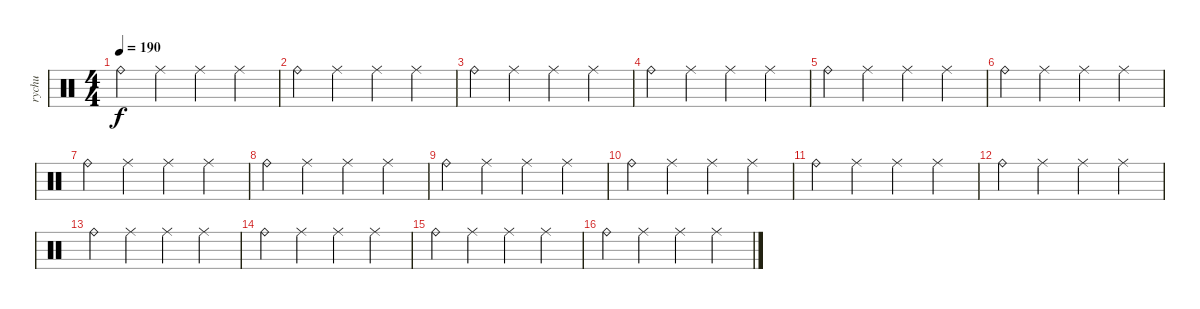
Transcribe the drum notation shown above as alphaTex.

\track ("rychu" "rychu") {instrument percussion}
\staff {score}
\articulation defaults
\ts (4 4)
\tempo 190
\clef neutral
\ks c "Ride (bell)".4{dy f} "Ride (middle)".4 "Ride (middle)".4 "Ride (middle)".4
|
"Ride (bell)".4 "Ride (middle)".4 "Ride (middle)".4 "Ride (middle)".4 |
"Ride (bell)".4 "Ride (middle)".4 "Ride (middle)".4 "Ride (middle)".4 |
"Ride (bell)".4 "Ride (middle)".4 "Ride (middle)".4 "Ride (middle)".4 |
"Ride (bell)".4 "Ride (middle)".4 "Ride (middle)".4 "Ride (middle)".4 |
"Ride (bell)".4 "Ride (middle)".4 "Ride (middle)".4 "Ride (middle)".4 |
"Ride (bell)".4 "Ride (middle)".4 "Ride (middle)".4 "Ride (middle)".4 |
"Ride (bell)".4 "Ride (middle)".4 "Ride (middle)".4 "Ride (middle)".4 |
"Ride (bell)".4 "Ride (middle)".4 "Ride (middle)".4 "Ride (middle)".4 |
"Ride (bell)".4 "Ride (middle)".4 "Ride (middle)".4 "Ride (middle)".4 |
"Ride (bell)".4 "Ride (middle)".4 "Ride (middle)".4 "Ride (middle)".4 |
"Ride (bell)".4 "Ride (middle)".4 "Ride (middle)".4 "Ride (middle)".4 |
"Ride (bell)".4 "Ride (middle)".4 "Ride (middle)".4 "Ride (middle)".4 |
"Ride (bell)".4 "Ride (middle)".4 "Ride (middle)".4 "Ride (middle)".4 |
"Ride (bell)".4 "Ride (middle)".4 "Ride (middle)".4 "Ride (middle)".4 |
"Ride (bell)".4 "Ride (middle)".4 "Ride (middle)".4 "Ride (middle)".4
